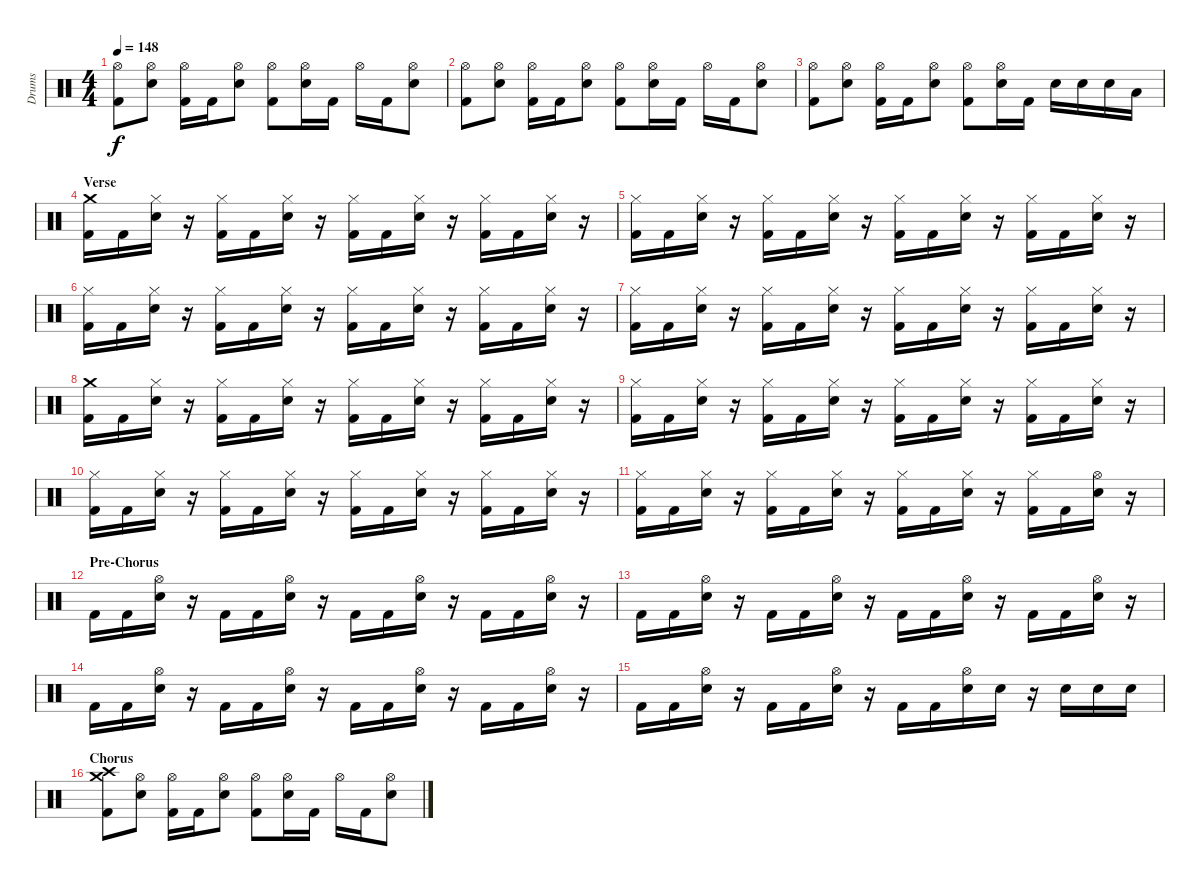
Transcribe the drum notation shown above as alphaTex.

\track ("Drums" "Drums") {instrument percussion}
\staff {score}
\articulation defaults
\ts (4 4)
\tempo 148
\clef neutral
\ks c
("Hi-Hat (open)" "Kick (hit) 2").8{dy f} ("Hi-Hat (open)" "Electric Snare (hit)").8 ("Hi-Hat (open)" "Kick (hit) 2").16 "Kick (hit) 2".16 ("Hi-Hat (open)" "Electric Snare (hit)").8 ("Hi-Hat (open)" "Kick (hit) 2").8 ("Hi-Hat (open)" "Electric Snare (hit)").16 "Kick (hit) 2".16 "Hi-Hat (open)".16 "Kick (hit) 2".16 ("Hi-Hat (open)" "Electric Snare (hit)").8 |
("Hi-Hat (open)" "Kick (hit) 2").8 ("Hi-Hat (open)" "Electric Snare (hit)").8 ("Hi-Hat (open)" "Kick (hit) 2").16 "Kick (hit) 2".16 ("Hi-Hat (open)" "Electric Snare (hit)").8 ("Hi-Hat (open)" "Kick (hit) 2").8 ("Hi-Hat (open)" "Electric Snare (hit)").16 "Kick (hit) 2".16 "Hi-Hat (open)".16 "Kick (hit) 2".16 ("Hi-Hat (open)" "Electric Snare (hit)").8 |
("Hi-Hat (open)" "Kick (hit) 2").8 ("Hi-Hat (open)" "Electric Snare (hit)").8 ("Hi-Hat (open)" "Kick (hit) 2").16 "Kick (hit) 2".16 ("Hi-Hat (open)" "Electric Snare (hit)").8 ("Hi-Hat (open)" "Kick (hit) 2").8 ("Hi-Hat (open)" "Electric Snare (hit)").16 "Kick (hit) 2".16 "Electric Snare (hit)".16 "Electric Snare (hit)".16 "Electric Snare (hit)".16 "Low Tom (hit)".16 |
\section ("" "Verse")
("Crash medium (hit)" "Kick (hit) 2").16 "Kick (hit) 2".16 ("Hi-Hat (closed)" "Electric Snare (hit)").16 r.16 ("Hi-Hat (closed)" "Kick (hit) 2").16 "Kick (hit) 2".16 ("Hi-Hat (closed)" "Electric Snare (hit)").16 r.16 ("Hi-Hat (closed)" "Kick (hit) 2").16 "Kick (hit) 2".16 ("Hi-Hat (closed)" "Electric Snare (hit)").16 r.16 ("Hi-Hat (closed)" "Kick (hit) 2").16 "Kick (hit) 2".16 ("Hi-Hat (closed)" "Electric Snare (hit)").16 r.16 |
("Hi-Hat (closed)" "Kick (hit) 2").16 "Kick (hit) 2".16 ("Hi-Hat (closed)" "Electric Snare (hit)").16 r.16 ("Hi-Hat (closed)" "Kick (hit) 2").16 "Kick (hit) 2".16 ("Hi-Hat (closed)" "Electric Snare (hit)").16 r.16 ("Hi-Hat (closed)" "Kick (hit) 2").16 "Kick (hit) 2".16 ("Hi-Hat (closed)" "Electric Snare (hit)").16 r.16 ("Hi-Hat (closed)" "Kick (hit) 2").16 "Kick (hit) 2".16 ("Hi-Hat (closed)" "Electric Snare (hit)").16 r.16 |
("Hi-Hat (closed)" "Kick (hit) 2").16 "Kick (hit) 2".16 ("Hi-Hat (closed)" "Electric Snare (hit)").16 r.16 ("Hi-Hat (closed)" "Kick (hit) 2").16 "Kick (hit) 2".16 ("Hi-Hat (closed)" "Electric Snare (hit)").16 r.16 ("Hi-Hat (closed)" "Kick (hit) 2").16 "Kick (hit) 2".16 ("Hi-Hat (closed)" "Electric Snare (hit)").16 r.16 ("Hi-Hat (closed)" "Kick (hit) 2").16 "Kick (hit) 2".16 ("Hi-Hat (closed)" "Electric Snare (hit)").16 r.16 |
("Hi-Hat (closed)" "Kick (hit) 2").16 "Kick (hit) 2".16 ("Hi-Hat (closed)" "Electric Snare (hit)").16 r.16 ("Hi-Hat (closed)" "Kick (hit) 2").16 "Kick (hit) 2".16 ("Hi-Hat (closed)" "Electric Snare (hit)").16 r.16 ("Hi-Hat (closed)" "Kick (hit) 2").16 "Kick (hit) 2".16 ("Hi-Hat (closed)" "Electric Snare (hit)").16 r.16 ("Hi-Hat (closed)" "Kick (hit) 2").16 "Kick (hit) 2".16 ("Hi-Hat (closed)" "Electric Snare (hit)").16 r.16 |
("Crash medium (hit)" "Kick (hit) 2").16 "Kick (hit) 2".16 ("Hi-Hat (closed)" "Electric Snare (hit)").16 r.16 ("Hi-Hat (closed)" "Kick (hit) 2").16 "Kick (hit) 2".16 ("Hi-Hat (closed)" "Electric Snare (hit)").16 r.16 ("Hi-Hat (closed)" "Kick (hit) 2").16 "Kick (hit) 2".16 ("Hi-Hat (closed)" "Electric Snare (hit)").16 r.16 ("Hi-Hat (closed)" "Kick (hit) 2").16 "Kick (hit) 2".16 ("Hi-Hat (closed)" "Electric Snare (hit)").16 r.16 |
("Hi-Hat (closed)" "Kick (hit) 2").16 "Kick (hit) 2".16 ("Hi-Hat (closed)" "Electric Snare (hit)").16 r.16 ("Hi-Hat (closed)" "Kick (hit) 2").16 "Kick (hit) 2".16 ("Hi-Hat (closed)" "Electric Snare (hit)").16 r.16 ("Hi-Hat (closed)" "Kick (hit) 2").16 "Kick (hit) 2".16 ("Hi-Hat (closed)" "Electric Snare (hit)").16 r.16 ("Hi-Hat (closed)" "Kick (hit) 2").16 "Kick (hit) 2".16 ("Hi-Hat (closed)" "Electric Snare (hit)").16 r.16 |
("Hi-Hat (closed)" "Kick (hit) 2").16 "Kick (hit) 2".16 ("Hi-Hat (closed)" "Electric Snare (hit)").16 r.16 ("Hi-Hat (closed)" "Kick (hit) 2").16 "Kick (hit) 2".16 ("Hi-Hat (closed)" "Electric Snare (hit)").16 r.16 ("Hi-Hat (closed)" "Kick (hit) 2").16 "Kick (hit) 2".16 ("Hi-Hat (closed)" "Electric Snare (hit)").16 r.16 ("Hi-Hat (closed)" "Kick (hit) 2").16 "Kick (hit) 2".16 ("Hi-Hat (closed)" "Electric Snare (hit)").16 r.16 |
("Hi-Hat (closed)" "Kick (hit) 2").16 "Kick (hit) 2".16 ("Hi-Hat (closed)" "Electric Snare (hit)").16 r.16 ("Hi-Hat (closed)" "Kick (hit) 2").16 "Kick (hit) 2".16 ("Hi-Hat (closed)" "Electric Snare (hit)").16 r.16 ("Hi-Hat (closed)" "Kick (hit) 2").16 "Kick (hit) 2".16 ("Hi-Hat (closed)" "Electric Snare (hit)").16 r.16 ("Hi-Hat (closed)" "Kick (hit) 2").16 "Kick (hit) 2".16 ("Hi-Hat (open)" "Electric Snare (hit)").16 r.16 |
\section ("" "Pre-Chorus")
"Kick (hit) 2".16 "Kick (hit) 2".16 ("Hi-Hat (open)" "Electric Snare (hit)").16 r.16 "Kick (hit) 2".16 "Kick (hit) 2".16 ("Hi-Hat (open)" "Electric Snare (hit)").16 r.16 "Kick (hit) 2".16 "Kick (hit) 2".16 ("Hi-Hat (open)" "Electric Snare (hit)").16 r.16 "Kick (hit) 2".16 "Kick (hit) 2".16 ("Hi-Hat (open)" "Electric Snare (hit)").16 r.16 |
"Kick (hit) 2".16 "Kick (hit) 2".16 ("Hi-Hat (open)" "Electric Snare (hit)").16 r.16 "Kick (hit) 2".16 "Kick (hit) 2".16 ("Hi-Hat (open)" "Electric Snare (hit)").16 r.16 "Kick (hit) 2".16 "Kick (hit) 2".16 ("Hi-Hat (open)" "Electric Snare (hit)").16 r.16 "Kick (hit) 2".16 "Kick (hit) 2".16 ("Hi-Hat (open)" "Electric Snare (hit)").16 r.16 |
"Kick (hit) 2".16 "Kick (hit) 2".16 ("Hi-Hat (open)" "Electric Snare (hit)").16 r.16 "Kick (hit) 2".16 "Kick (hit) 2".16 ("Hi-Hat (open)" "Electric Snare (hit)").16 r.16 "Kick (hit) 2".16 "Kick (hit) 2".16 ("Hi-Hat (open)" "Electric Snare (hit)").16 r.16 "Kick (hit) 2".16 "Kick (hit) 2".16 ("Hi-Hat (open)" "Electric Snare (hit)").16 r.16 |
"Kick (hit) 2".16 "Kick (hit) 2".16 ("Hi-Hat (open)" "Electric Snare (hit)").16 r.16 "Kick (hit) 2".16 "Kick (hit) 2".16 ("Hi-Hat (open)" "Electric Snare (hit)").16 r.16 "Kick (hit) 2".16 "Kick (hit) 2".16 ("Hi-Hat (open)" "Electric Snare (hit)").16 "Electric Snare (hit)".16 r.16 "Electric Snare (hit)".16 "Electric Snare (hit)".16 "Electric Snare (hit)".16 |
\section ("" "Chorus")
("Crash high (hit)" "Crash medium (hit)" "Kick (hit) 2").8 ("Hi-Hat (open)" "Electric Snare (hit)").8 ("Hi-Hat (open)" "Kick (hit) 2").16 "Kick (hit) 2".16 ("Hi-Hat (open)" "Electric Snare (hit)").8 ("Hi-Hat (open)" "Kick (hit) 2").8 ("Hi-Hat (open)" "Electric Snare (hit)").16 "Kick (hit) 2".16 "Hi-Hat (open)".16 "Kick (hit) 2".16 ("Hi-Hat (open)" "Electric Snare (hit)").8
